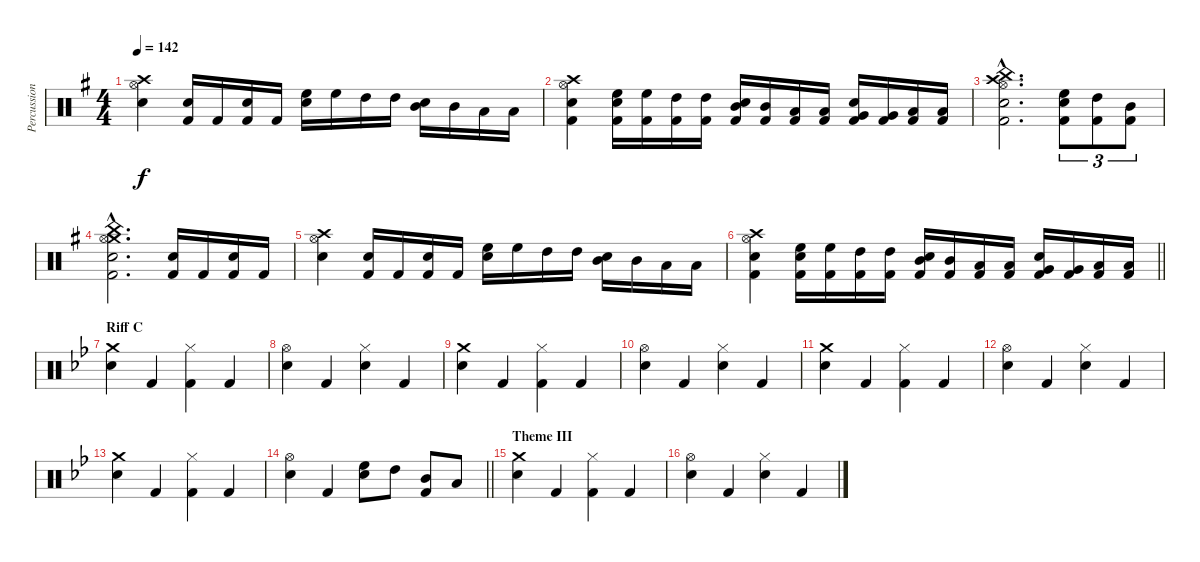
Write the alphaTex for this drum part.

\track ("Percussion" "Percussion") {instrument percussion}
\staff {score}
\articulation defaults
\ts (4 4)
\tempo 142
\clef neutral
\ks eminor
("Crash high (hit)" "Hi-Hat (open)" "Snare (hit) 2").4{dy f} ("Snare (hit) 2" "Kick (hit) 2").16 "Kick (hit) 2".16 ("Snare (hit) 2" "Kick (hit) 2").16 "Kick (hit) 2".16 ("High Floor Tom (hit)" "Snare (hit) 2").16 "High Floor Tom (hit)".16 "High Tom (hit)".16 "High Tom (hit)".16 ("Mid Tom (hit)" "Snare (hit) 2").16 "Mid Tom (hit)".16 "Low Tom (hit)".16 "Low Tom (hit)".16 |
("Crash high (hit)" "Hi-Hat (open)" "Snare (hit) 2" "Kick (hit) 2").4 ("High Floor Tom (hit)" "Snare (hit) 2" "Kick (hit) 2").16 ("High Floor Tom (hit)" "Kick (hit) 2").16 ("High Tom (hit)" "Kick (hit) 2").16 ("High Tom (hit)" "Kick (hit) 2").16 ("Mid Tom (hit)" "Snare (hit) 2" "Kick (hit) 2").16 ("Mid Tom (hit)" "Kick (hit) 2").16 ("Low Tom (hit)" "Kick (hit) 2").16 ("Low Tom (hit)" "Kick (hit) 2").16 ("Snare (hit) 2" "Very Low Tom (hit)" "Kick (hit) 2").16 ("Very Low Tom (hit)" "Kick (hit) 2").16 ("Low Floor Tom (hit)" "Kick (hit) 2").16 ("Low Floor Tom (hit)" "Kick (hit) 2").16 |
("Crash high (hit)"{hac} "China (hit)"{hac} "Hi-Hat (open)"{hac} "Snare (hit) 2"{hac} "Kick (hit) 2"{hac}).2{d} ("High Floor Tom (hit)" "Snare (hit) 2" "Kick (hit) 2").8{tu (3 2)} ("High Tom (hit)" "Kick (hit) 2").8{tu (3 2)} ("Mid Tom (hit)" "Kick (hit) 2").8{tu (3 2)} |
("Crash medium (hit)"{hac} "China (hit)"{hac} "Hi-Hat (open)"{hac} "Snare (hit) 2"{hac} "Kick (hit) 2"{hac}).2{d} ("Snare (hit) 2" "Kick (hit) 2").16 "Kick (hit) 2".16 ("Snare (hit) 2" "Kick (hit) 2").16 "Kick (hit) 2".16 |
("Crash high (hit)" "Hi-Hat (open)" "Snare (hit) 2").4 ("Snare (hit) 2" "Kick (hit) 2").16 "Kick (hit) 2".16 ("Snare (hit) 2" "Kick (hit) 2").16 "Kick (hit) 2".16 ("High Floor Tom (hit)" "Snare (hit) 2").16 "High Floor Tom (hit)".16 "High Tom (hit)".16 "High Tom (hit)".16 ("Mid Tom (hit)" "Snare (hit) 2").16 "Mid Tom (hit)".16 "Low Tom (hit)".16 "Low Tom (hit)".16 |
\barLineRight lightlight
("Crash high (hit)" "Hi-Hat (open)" "Snare (hit) 2" "Kick (hit) 2").4 ("High Floor Tom (hit)" "Snare (hit) 2" "Kick (hit) 2").16 ("High Floor Tom (hit)" "Kick (hit) 2").16 ("High Tom (hit)" "Kick (hit) 2").16 ("High Tom (hit)" "Kick (hit) 2").16 ("Mid Tom (hit)" "Snare (hit) 2" "Kick (hit) 2").16 ("Mid Tom (hit)" "Kick (hit) 2").16 ("Low Tom (hit)" "Kick (hit) 2").16 ("Low Tom (hit)" "Kick (hit) 2").16 ("Snare (hit) 2" "Very Low Tom (hit)" "Kick (hit) 2").16 ("Very Low Tom (hit)" "Kick (hit) 2").16 ("Low Floor Tom (hit)" "Kick (hit) 2").16 ("Low Floor Tom (hit)" "Kick (hit) 2").16 |
\section ("" "Riff C")
\ks gminor
("Crash medium (hit)" "Snare (hit) 2").4 "Kick (hit) 2".4 ("Hi-Hat (closed)" "Kick (hit) 2").4 "Kick (hit) 2".4 |
("Hi-Hat (open)" "Snare (hit) 2").4 "Kick (hit) 2".4 ("Hi-Hat (closed)" "Snare (hit) 2").4 "Kick (hit) 2".4 |
("Crash medium (hit)" "Snare (hit) 2").4 "Kick (hit) 2".4 ("Hi-Hat (closed)" "Kick (hit) 2").4 "Kick (hit) 2".4 |
("Hi-Hat (open)" "Snare (hit) 2").4 "Kick (hit) 2".4 ("Hi-Hat (closed)" "Snare (hit) 2").4 "Kick (hit) 2".4 |
("Crash medium (hit)" "Snare (hit) 2").4 "Kick (hit) 2".4 ("Hi-Hat (closed)" "Kick (hit) 2").4 "Kick (hit) 2".4 |
("Hi-Hat (open)" "Snare (hit) 2").4 "Kick (hit) 2".4 ("Hi-Hat (closed)" "Snare (hit) 2").4 "Kick (hit) 2".4 |
("Crash medium (hit)" "Snare (hit) 2").4 "Kick (hit) 2".4 ("Hi-Hat (closed)" "Kick (hit) 2").4 "Kick (hit) 2".4 |
\barLineRight lightlight
("Hi-Hat (open)" "Snare (hit) 2").4 "Kick (hit) 2".4 ("High Floor Tom (hit)" "Snare (hit) 2").8 "High Tom (hit)".8 ("Mid Tom (hit)" "Kick (hit) 2").8 "Low Tom (hit)".8 |
\section ("" "Theme III")
("Crash medium (hit)" "Snare (hit) 2").4 "Kick (hit) 2".4 ("Hi-Hat (closed)" "Kick (hit) 2").4 "Kick (hit) 2".4 |
("Hi-Hat (open)" "Snare (hit) 2").4 "Kick (hit) 2".4 ("Hi-Hat (closed)" "Snare (hit) 2").4 "Kick (hit) 2".4
